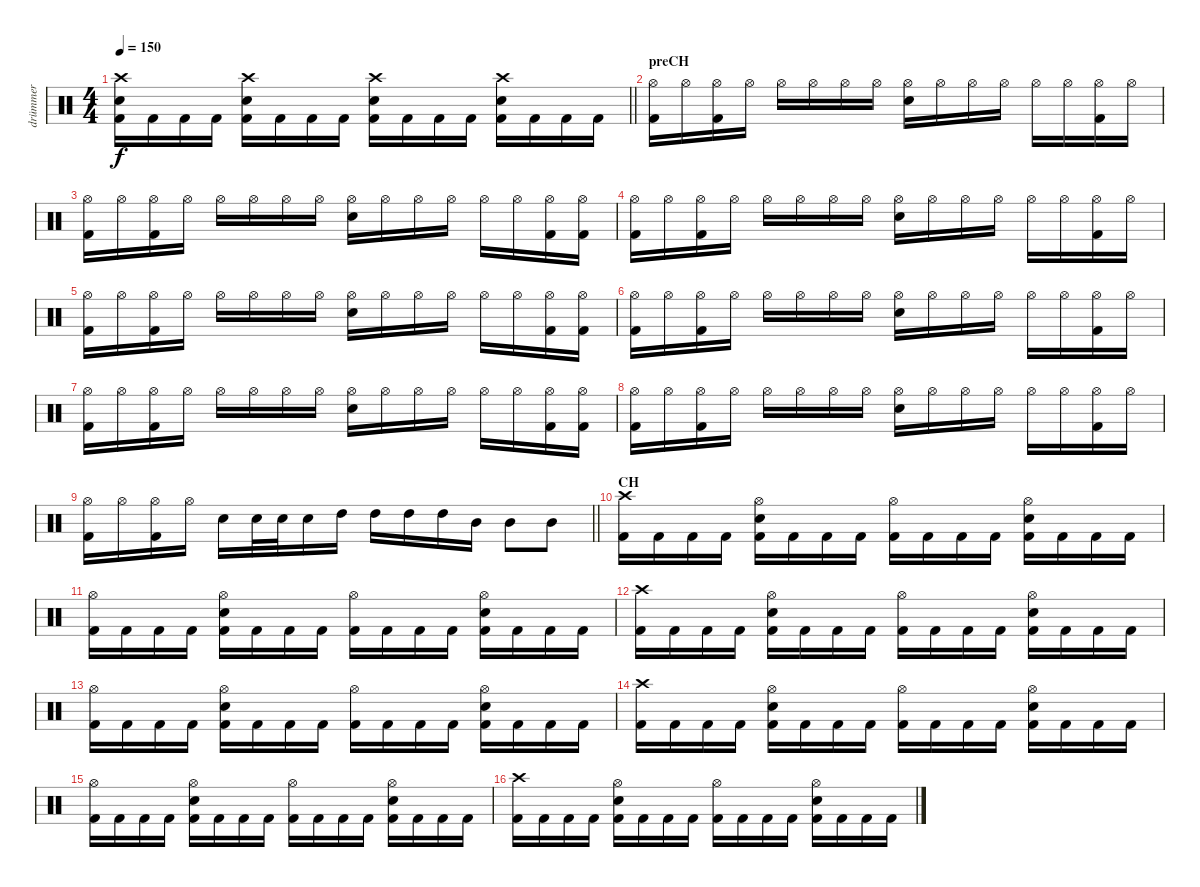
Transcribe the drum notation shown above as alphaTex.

\track ("drümmer" "drümmer") {instrument percussion}
\staff {score}
\articulation defaults
\ts (4 4)
\tempo 150
\clef neutral
\barLineRight lightlight
\ks c
("Crash high (hit)" "Snare (hit) 2" "Kick (hit) 2").16{dy f} "Kick (hit) 2".16 "Kick (hit) 2".16 "Kick (hit) 2".16 ("Crash high (hit)" "Snare (hit) 2" "Kick (hit) 2").16 "Kick (hit) 2".16 "Kick (hit) 2".16 "Kick (hit) 2".16 ("Crash high (hit)" "Snare (hit) 2" "Kick (hit) 2").16 "Kick (hit) 2".16 "Kick (hit) 2".16 "Kick (hit) 2".16 ("Crash high (hit)" "Snare (hit) 2" "Kick (hit) 2").16 "Kick (hit) 2".16 "Kick (hit) 2".16 "Kick (hit) 2".16 |
\section ("" "preCH")
("Hi-Hat (open)" "Kick (hit) 2").16 "Hi-Hat (open)".16 ("Hi-Hat (open)" "Kick (hit) 2").16 "Hi-Hat (open)".16 "Hi-Hat (open)".16 "Hi-Hat (open)".16 "Hi-Hat (open)".16 "Hi-Hat (open)".16 ("Hi-Hat (open)" "Snare (hit) 2").16 "Hi-Hat (open)".16 "Hi-Hat (open)".16 "Hi-Hat (open)".16 "Hi-Hat (open)".16 "Hi-Hat (open)".16 ("Hi-Hat (open)" "Kick (hit) 2").16 "Hi-Hat (open)".16 |
("Hi-Hat (open)" "Kick (hit) 2").16 "Hi-Hat (open)".16 ("Hi-Hat (open)" "Kick (hit) 2").16 "Hi-Hat (open)".16 "Hi-Hat (open)".16 "Hi-Hat (open)".16 "Hi-Hat (open)".16 "Hi-Hat (open)".16 ("Hi-Hat (open)" "Snare (hit) 2").16 "Hi-Hat (open)".16 "Hi-Hat (open)".16 "Hi-Hat (open)".16 "Hi-Hat (open)".16 "Hi-Hat (open)".16 ("Hi-Hat (open)" "Kick (hit) 2").16 ("Hi-Hat (open)" "Kick (hit) 2").16 |
("Hi-Hat (open)" "Kick (hit) 2").16 "Hi-Hat (open)".16 ("Hi-Hat (open)" "Kick (hit) 2").16 "Hi-Hat (open)".16 "Hi-Hat (open)".16 "Hi-Hat (open)".16 "Hi-Hat (open)".16 "Hi-Hat (open)".16 ("Hi-Hat (open)" "Snare (hit) 2").16 "Hi-Hat (open)".16 "Hi-Hat (open)".16 "Hi-Hat (open)".16 "Hi-Hat (open)".16 "Hi-Hat (open)".16 ("Hi-Hat (open)" "Kick (hit) 2").16 "Hi-Hat (open)".16 |
("Hi-Hat (open)" "Kick (hit) 2").16 "Hi-Hat (open)".16 ("Hi-Hat (open)" "Kick (hit) 2").16 "Hi-Hat (open)".16 "Hi-Hat (open)".16 "Hi-Hat (open)".16 "Hi-Hat (open)".16 "Hi-Hat (open)".16 ("Hi-Hat (open)" "Snare (hit) 2").16 "Hi-Hat (open)".16 "Hi-Hat (open)".16 "Hi-Hat (open)".16 "Hi-Hat (open)".16 "Hi-Hat (open)".16 ("Hi-Hat (open)" "Kick (hit) 2").16 ("Hi-Hat (open)" "Kick (hit) 2").16 |
("Hi-Hat (open)" "Kick (hit) 2").16 "Hi-Hat (open)".16 ("Hi-Hat (open)" "Kick (hit) 2").16 "Hi-Hat (open)".16 "Hi-Hat (open)".16 "Hi-Hat (open)".16 "Hi-Hat (open)".16 "Hi-Hat (open)".16 ("Hi-Hat (open)" "Snare (hit) 2").16 "Hi-Hat (open)".16 "Hi-Hat (open)".16 "Hi-Hat (open)".16 "Hi-Hat (open)".16 "Hi-Hat (open)".16 ("Hi-Hat (open)" "Kick (hit) 2").16 "Hi-Hat (open)".16 |
("Hi-Hat (open)" "Kick (hit) 2").16 "Hi-Hat (open)".16 ("Hi-Hat (open)" "Kick (hit) 2").16 "Hi-Hat (open)".16 "Hi-Hat (open)".16 "Hi-Hat (open)".16 "Hi-Hat (open)".16 "Hi-Hat (open)".16 ("Hi-Hat (open)" "Snare (hit) 2").16 "Hi-Hat (open)".16 "Hi-Hat (open)".16 "Hi-Hat (open)".16 "Hi-Hat (open)".16 "Hi-Hat (open)".16 ("Hi-Hat (open)" "Kick (hit) 2").16 ("Hi-Hat (open)" "Kick (hit) 2").16 |
("Hi-Hat (open)" "Kick (hit) 2").16 "Hi-Hat (open)".16 ("Hi-Hat (open)" "Kick (hit) 2").16 "Hi-Hat (open)".16 "Hi-Hat (open)".16 "Hi-Hat (open)".16 "Hi-Hat (open)".16 "Hi-Hat (open)".16 ("Hi-Hat (open)" "Snare (hit) 2").16 "Hi-Hat (open)".16 "Hi-Hat (open)".16 "Hi-Hat (open)".16 "Hi-Hat (open)".16 "Hi-Hat (open)".16 ("Hi-Hat (open)" "Kick (hit) 2").16 "Hi-Hat (open)".16 |
\barLineRight lightlight
("Hi-Hat (open)" "Kick (hit) 2").16 "Hi-Hat (open)".16 ("Hi-Hat (open)" "Kick (hit) 2").16 "Hi-Hat (open)".16 "Snare (hit) 2".16 "Snare (hit) 2".32 "Snare (hit) 2".32 "Snare (hit) 2".16 "High Tom (hit)".16 "High Tom (hit)".16 "High Tom (hit)".16 "High Tom (hit)".16 "Mid Tom (hit)".16 "Mid Tom (hit)".8 "Mid Tom (hit)".8 |
\section ("" "CH")
("Crash high (hit)" "Kick (hit) 2").16 "Kick (hit) 2".16 "Kick (hit) 2".16 "Kick (hit) 2".16 ("Hi-Hat (open)" "Snare (hit) 2" "Kick (hit) 2").16 "Kick (hit) 2".16 "Kick (hit) 2".16 "Kick (hit) 2".16 ("Hi-Hat (open)" "Kick (hit) 2").16 "Kick (hit) 2".16 "Kick (hit) 2".16 "Kick (hit) 2".16 ("Hi-Hat (open)" "Snare (hit) 2" "Kick (hit) 2").16 "Kick (hit) 2".16 "Kick (hit) 2".16 "Kick (hit) 2".16 |
("Hi-Hat (open)" "Kick (hit) 2").16 "Kick (hit) 2".16 "Kick (hit) 2".16 "Kick (hit) 2".16 ("Hi-Hat (open)" "Snare (hit) 2" "Kick (hit) 2").16 "Kick (hit) 2".16 "Kick (hit) 2".16 "Kick (hit) 2".16 ("Hi-Hat (open)" "Kick (hit) 2").16 "Kick (hit) 2".16 "Kick (hit) 2".16 "Kick (hit) 2".16 ("Hi-Hat (open)" "Snare (hit) 2" "Kick (hit) 2").16 "Kick (hit) 2".16 "Kick (hit) 2".16 "Kick (hit) 2".16 |
("Crash high (hit)" "Kick (hit) 2").16 "Kick (hit) 2".16 "Kick (hit) 2".16 "Kick (hit) 2".16 ("Hi-Hat (open)" "Snare (hit) 2" "Kick (hit) 2").16 "Kick (hit) 2".16 "Kick (hit) 2".16 "Kick (hit) 2".16 ("Hi-Hat (open)" "Kick (hit) 2").16 "Kick (hit) 2".16 "Kick (hit) 2".16 "Kick (hit) 2".16 ("Hi-Hat (open)" "Snare (hit) 2" "Kick (hit) 2").16 "Kick (hit) 2".16 "Kick (hit) 2".16 "Kick (hit) 2".16 |
("Hi-Hat (open)" "Kick (hit) 2").16 "Kick (hit) 2".16 "Kick (hit) 2".16 "Kick (hit) 2".16 ("Hi-Hat (open)" "Snare (hit) 2" "Kick (hit) 2").16 "Kick (hit) 2".16 "Kick (hit) 2".16 "Kick (hit) 2".16 ("Hi-Hat (open)" "Kick (hit) 2").16 "Kick (hit) 2".16 "Kick (hit) 2".16 "Kick (hit) 2".16 ("Hi-Hat (open)" "Snare (hit) 2" "Kick (hit) 2").16 "Kick (hit) 2".16 "Kick (hit) 2".16 "Kick (hit) 2".16 |
("Crash high (hit)" "Kick (hit) 2").16 "Kick (hit) 2".16 "Kick (hit) 2".16 "Kick (hit) 2".16 ("Hi-Hat (open)" "Snare (hit) 2" "Kick (hit) 2").16 "Kick (hit) 2".16 "Kick (hit) 2".16 "Kick (hit) 2".16 ("Hi-Hat (open)" "Kick (hit) 2").16 "Kick (hit) 2".16 "Kick (hit) 2".16 "Kick (hit) 2".16 ("Hi-Hat (open)" "Snare (hit) 2" "Kick (hit) 2").16 "Kick (hit) 2".16 "Kick (hit) 2".16 "Kick (hit) 2".16 |
("Hi-Hat (open)" "Kick (hit) 2").16 "Kick (hit) 2".16 "Kick (hit) 2".16 "Kick (hit) 2".16 ("Hi-Hat (open)" "Snare (hit) 2" "Kick (hit) 2").16 "Kick (hit) 2".16 "Kick (hit) 2".16 "Kick (hit) 2".16 ("Hi-Hat (open)" "Kick (hit) 2").16 "Kick (hit) 2".16 "Kick (hit) 2".16 "Kick (hit) 2".16 ("Hi-Hat (open)" "Snare (hit) 2" "Kick (hit) 2").16 "Kick (hit) 2".16 "Kick (hit) 2".16 "Kick (hit) 2".16 |
("Crash high (hit)" "Kick (hit) 2").16 "Kick (hit) 2".16 "Kick (hit) 2".16 "Kick (hit) 2".16 ("Hi-Hat (open)" "Snare (hit) 2" "Kick (hit) 2").16 "Kick (hit) 2".16 "Kick (hit) 2".16 "Kick (hit) 2".16 ("Hi-Hat (open)" "Kick (hit) 2").16 "Kick (hit) 2".16 "Kick (hit) 2".16 "Kick (hit) 2".16 ("Hi-Hat (open)" "Snare (hit) 2" "Kick (hit) 2").16 "Kick (hit) 2".16 "Kick (hit) 2".16 "Kick (hit) 2".16
